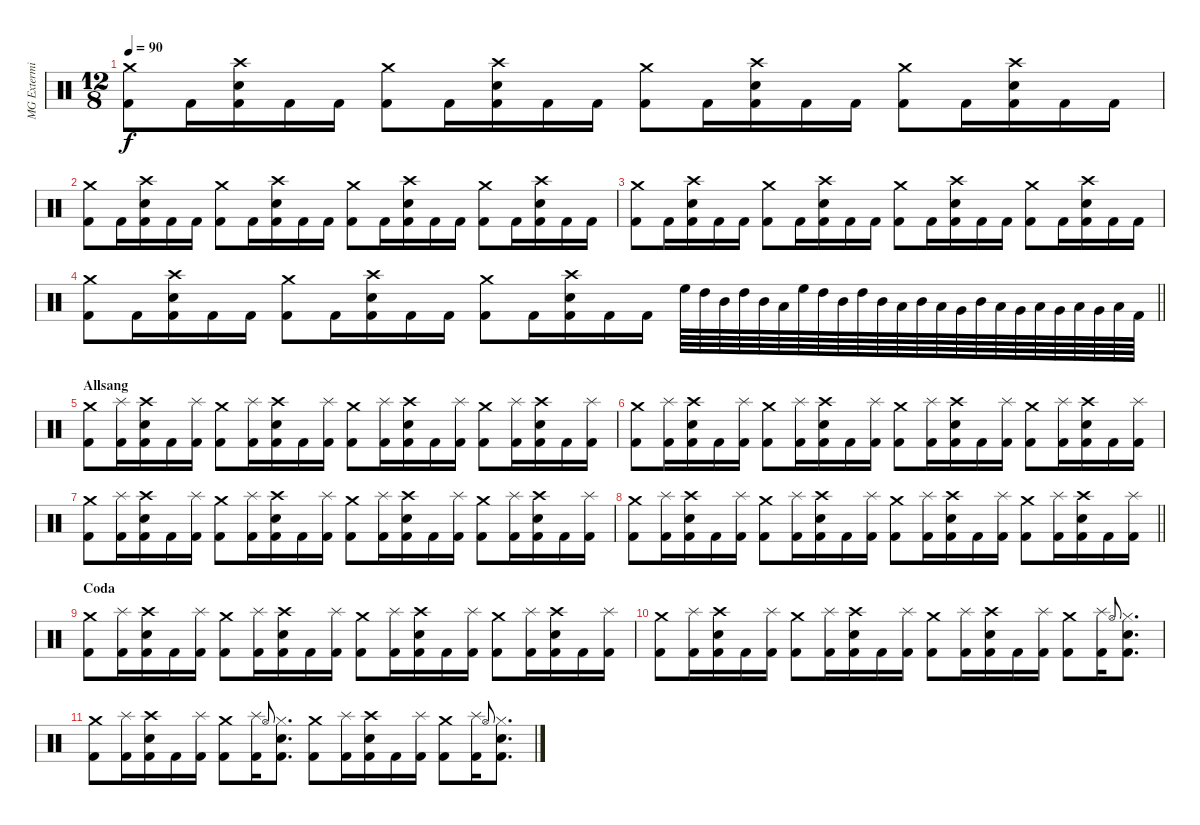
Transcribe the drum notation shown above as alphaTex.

\track ("MG Exterminator" "MG Extermi") {instrument percussion}
\staff {score}
\articulation defaults
\ts (12 8)
\tempo 90
\clef neutral
\ks c
("Crash medium (hit)" "Kick (hit) 2").8{dy f} "Kick (hit) 2".16 ("Crash high (hit)" "Snare (hit) 2" "Kick (hit) 2").16 "Kick (hit) 2".16 "Kick (hit) 2".16 ("Crash medium (hit)" "Kick (hit) 2").8 "Kick (hit) 2".16 ("Crash high (hit)" "Snare (hit) 2" "Kick (hit) 2").16 "Kick (hit) 2".16 "Kick (hit) 2".16 ("Crash medium (hit)" "Kick (hit) 2").8 "Kick (hit) 2".16 ("Crash high (hit)" "Snare (hit) 2" "Kick (hit) 2").16 "Kick (hit) 2".16 "Kick (hit) 2".16 ("Crash medium (hit)" "Kick (hit) 2").8 "Kick (hit) 2".16 ("Crash high (hit)" "Snare (hit) 2" "Kick (hit) 2").16 "Kick (hit) 2".16 "Kick (hit) 2".16 |
("Crash medium (hit)" "Kick (hit) 2").8 "Kick (hit) 2".16 ("Crash high (hit)" "Snare (hit) 2" "Kick (hit) 2").16 "Kick (hit) 2".16 "Kick (hit) 2".16 ("Crash medium (hit)" "Kick (hit) 2").8 "Kick (hit) 2".16 ("Crash high (hit)" "Snare (hit) 2" "Kick (hit) 2").16 "Kick (hit) 2".16 "Kick (hit) 2".16 ("Crash medium (hit)" "Kick (hit) 2").8 "Kick (hit) 2".16 ("Crash high (hit)" "Snare (hit) 2" "Kick (hit) 2").16 "Kick (hit) 2".16 "Kick (hit) 2".16 ("Crash medium (hit)" "Kick (hit) 2").8 "Kick (hit) 2".16 ("Crash high (hit)" "Snare (hit) 2" "Kick (hit) 2").16 "Kick (hit) 2".16 "Kick (hit) 2".16 |
("Crash medium (hit)" "Kick (hit) 2").8 "Kick (hit) 2".16 ("Crash high (hit)" "Snare (hit) 2" "Kick (hit) 2").16 "Kick (hit) 2".16 "Kick (hit) 2".16 ("Crash medium (hit)" "Kick (hit) 2").8 "Kick (hit) 2".16 ("Crash high (hit)" "Snare (hit) 2" "Kick (hit) 2").16 "Kick (hit) 2".16 "Kick (hit) 2".16 ("Crash medium (hit)" "Kick (hit) 2").8 "Kick (hit) 2".16 ("Crash high (hit)" "Snare (hit) 2" "Kick (hit) 2").16 "Kick (hit) 2".16 "Kick (hit) 2".16 ("Crash medium (hit)" "Kick (hit) 2").8 "Kick (hit) 2".16 ("Crash high (hit)" "Snare (hit) 2" "Kick (hit) 2").16 "Kick (hit) 2".16 "Kick (hit) 2".16 |
\barLineRight lightlight
("Crash medium (hit)" "Kick (hit) 2").8 "Kick (hit) 2".16 ("Crash high (hit)" "Snare (hit) 2" "Kick (hit) 2").16 "Kick (hit) 2".16 "Kick (hit) 2".16 ("Crash medium (hit)" "Kick (hit) 2").8 "Kick (hit) 2".16 ("Crash high (hit)" "Snare (hit) 2" "Kick (hit) 2").16 "Kick (hit) 2".16 "Kick (hit) 2".16 ("Crash medium (hit)" "Kick (hit) 2").8 "Kick (hit) 2".16 ("Crash high (hit)" "Snare (hit) 2" "Kick (hit) 2").16 "Kick (hit) 2".16 "Kick (hit) 2".16 "High Floor Tom (hit)".64 "High Tom (hit)".64 "Mid Tom (hit)".64 "High Tom (hit)".64 "Mid Tom (hit)".64 "Low Tom (hit)".64 "High Floor Tom (hit)".64 "High Tom (hit)".64 "Mid Tom (hit)".64 "High Tom (hit)".64 "Mid Tom (hit)".64 "Low Tom (hit)".64 "Mid Tom (hit)".64 "Low Tom (hit)".64 "Very Low Tom (hit)".64 "Mid Tom (hit)".64 "Low Tom (hit)".64 "Very Low Tom (hit)".64 "Low Tom (hit)".64 "Very Low Tom (hit)".64 "Low Floor Tom (hit)".64 "Very Low Tom (hit)".64 "Low Floor Tom (hit)".64 "Kick (hit) 2".64 |
\section ("" "Allsang")
("Crash medium (hit)" "Kick (hit) 2").8 ("Splash (hit)" "Kick (hit) 2").16 ("Crash high (hit)" "Snare (hit) 2" "Kick (hit) 2").16 "Kick (hit) 2".16 ("Splash (hit)" "Kick (hit) 2").16 ("Crash medium (hit)" "Kick (hit) 2").8 ("Splash (hit)" "Kick (hit) 2").16 ("Crash high (hit)" "Snare (hit) 2" "Kick (hit) 2").16 "Kick (hit) 2".16 ("Splash (hit)" "Kick (hit) 2").16 ("Crash medium (hit)" "Kick (hit) 2").8 ("Splash (hit)" "Kick (hit) 2").16 ("Crash high (hit)" "Snare (hit) 2" "Kick (hit) 2").16 "Kick (hit) 2".16 ("Splash (hit)" "Kick (hit) 2").16 ("Crash medium (hit)" "Kick (hit) 2").8 ("Splash (hit)" "Kick (hit) 2").16 ("Crash high (hit)" "Snare (hit) 2" "Kick (hit) 2").16 "Kick (hit) 2".16 ("Splash (hit)" "Kick (hit) 2").16 |
("Crash medium (hit)" "Kick (hit) 2").8 ("Splash (hit)" "Kick (hit) 2").16 ("Crash high (hit)" "Snare (hit) 2" "Kick (hit) 2").16 "Kick (hit) 2".16 ("Splash (hit)" "Kick (hit) 2").16 ("Crash medium (hit)" "Kick (hit) 2").8 ("Splash (hit)" "Kick (hit) 2").16 ("Crash high (hit)" "Snare (hit) 2" "Kick (hit) 2").16 "Kick (hit) 2".16 ("Splash (hit)" "Kick (hit) 2").16 ("Crash medium (hit)" "Kick (hit) 2").8 ("Splash (hit)" "Kick (hit) 2").16 ("Crash high (hit)" "Snare (hit) 2" "Kick (hit) 2").16 "Kick (hit) 2".16 ("Splash (hit)" "Kick (hit) 2").16 ("Crash medium (hit)" "Kick (hit) 2").8 ("Splash (hit)" "Kick (hit) 2").16 ("Crash high (hit)" "Snare (hit) 2" "Kick (hit) 2").16 "Kick (hit) 2".16 ("Splash (hit)" "Kick (hit) 2").16 |
("Crash medium (hit)" "Kick (hit) 2").8 ("Splash (hit)" "Kick (hit) 2").16 ("Crash high (hit)" "Snare (hit) 2" "Kick (hit) 2").16 "Kick (hit) 2".16 ("Splash (hit)" "Kick (hit) 2").16 ("Crash medium (hit)" "Kick (hit) 2").8 ("Splash (hit)" "Kick (hit) 2").16 ("Crash high (hit)" "Snare (hit) 2" "Kick (hit) 2").16 "Kick (hit) 2".16 ("Splash (hit)" "Kick (hit) 2").16 ("Crash medium (hit)" "Kick (hit) 2").8 ("Splash (hit)" "Kick (hit) 2").16 ("Crash high (hit)" "Snare (hit) 2" "Kick (hit) 2").16 "Kick (hit) 2".16 ("Splash (hit)" "Kick (hit) 2").16 ("Crash medium (hit)" "Kick (hit) 2").8 ("Splash (hit)" "Kick (hit) 2").16 ("Crash high (hit)" "Snare (hit) 2" "Kick (hit) 2").16 "Kick (hit) 2".16 ("Splash (hit)" "Kick (hit) 2").16 |
\barLineRight lightlight
("Crash medium (hit)" "Kick (hit) 2").8 ("Splash (hit)" "Kick (hit) 2").16 ("Crash high (hit)" "Snare (hit) 2" "Kick (hit) 2").16 "Kick (hit) 2".16 ("Splash (hit)" "Kick (hit) 2").16 ("Crash medium (hit)" "Kick (hit) 2").8 ("Splash (hit)" "Kick (hit) 2").16 ("Crash high (hit)" "Snare (hit) 2" "Kick (hit) 2").16 "Kick (hit) 2".16 ("Splash (hit)" "Kick (hit) 2").16 ("Crash medium (hit)" "Kick (hit) 2").8 ("Splash (hit)" "Kick (hit) 2").16 ("Crash high (hit)" "Snare (hit) 2" "Kick (hit) 2").16 "Kick (hit) 2".16 ("Splash (hit)" "Kick (hit) 2").16 ("Crash medium (hit)" "Kick (hit) 2").8 ("Splash (hit)" "Kick (hit) 2").16 ("Crash high (hit)" "Snare (hit) 2" "Kick (hit) 2").16 "Kick (hit) 2".16 ("Splash (hit)" "Kick (hit) 2").16 |
\section ("" "Coda")
("Crash medium (hit)" "Kick (hit) 2").8 ("Splash (hit)" "Kick (hit) 2").16 ("Crash high (hit)" "Snare (hit) 2" "Kick (hit) 2").16 "Kick (hit) 2".16 ("Splash (hit)" "Kick (hit) 2").16 ("Crash medium (hit)" "Kick (hit) 2").8 ("Splash (hit)" "Kick (hit) 2").16 ("Crash high (hit)" "Snare (hit) 2" "Kick (hit) 2").16 "Kick (hit) 2".16 ("Splash (hit)" "Kick (hit) 2").16 ("Crash medium (hit)" "Kick (hit) 2").8 ("Splash (hit)" "Kick (hit) 2").16 ("Crash high (hit)" "Snare (hit) 2" "Kick (hit) 2").16 "Kick (hit) 2".16 ("Splash (hit)" "Kick (hit) 2").16 ("Crash medium (hit)" "Kick (hit) 2").8 ("Splash (hit)" "Kick (hit) 2").16 ("Crash high (hit)" "Snare (hit) 2" "Kick (hit) 2").16 "Kick (hit) 2".16 ("Splash (hit)" "Kick (hit) 2").16 |
("Crash medium (hit)" "Kick (hit) 2").8 ("Splash (hit)" "Kick (hit) 2").16 ("Crash high (hit)" "Snare (hit) 2" "Kick (hit) 2").16 "Kick (hit) 2".16 ("Splash (hit)" "Kick (hit) 2").16 ("Crash medium (hit)" "Kick (hit) 2").8 ("Splash (hit)" "Kick (hit) 2").16 ("Crash high (hit)" "Snare (hit) 2" "Kick (hit) 2").16 "Kick (hit) 2".16 ("Splash (hit)" "Kick (hit) 2").16 ("Crash medium (hit)" "Kick (hit) 2").8 ("Splash (hit)" "Kick (hit) 2").16 ("Crash high (hit)" "Snare (hit) 2" "Kick (hit) 2").16 "Kick (hit) 2".16 ("Splash (hit)" "Kick (hit) 2").16 ("Crash medium (hit)" "Kick (hit) 2").8 ("Splash (hit)" "Kick (hit) 2").16 "Hi-Hat (open)".8{gr onbeat} ("Hi-Hat (closed)" "Snare (hit) 2" "Kick (hit) 2").8{d} |
("Crash medium (hit)" "Kick (hit) 2").8 ("Splash (hit)" "Kick (hit) 2").16 ("Crash high (hit)" "Snare (hit) 2" "Kick (hit) 2").16 "Kick (hit) 2".16 ("Splash (hit)" "Kick (hit) 2").16 ("Crash medium (hit)" "Kick (hit) 2").8 ("Splash (hit)" "Kick (hit) 2").16 "Hi-Hat (open)".8{gr onbeat} ("Hi-Hat (closed)" "Snare (hit) 2" "Kick (hit) 2").8{d} ("Crash medium (hit)" "Kick (hit) 2").8 ("Splash (hit)" "Kick (hit) 2").16 ("Crash high (hit)" "Snare (hit) 2" "Kick (hit) 2").16 "Kick (hit) 2".16 ("Splash (hit)" "Kick (hit) 2").16 ("Crash medium (hit)" "Kick (hit) 2").8 ("Splash (hit)" "Kick (hit) 2").16 "Hi-Hat (open)".8{gr onbeat} ("Hi-Hat (closed)" "Snare (hit) 2" "Kick (hit) 2").8{d}
